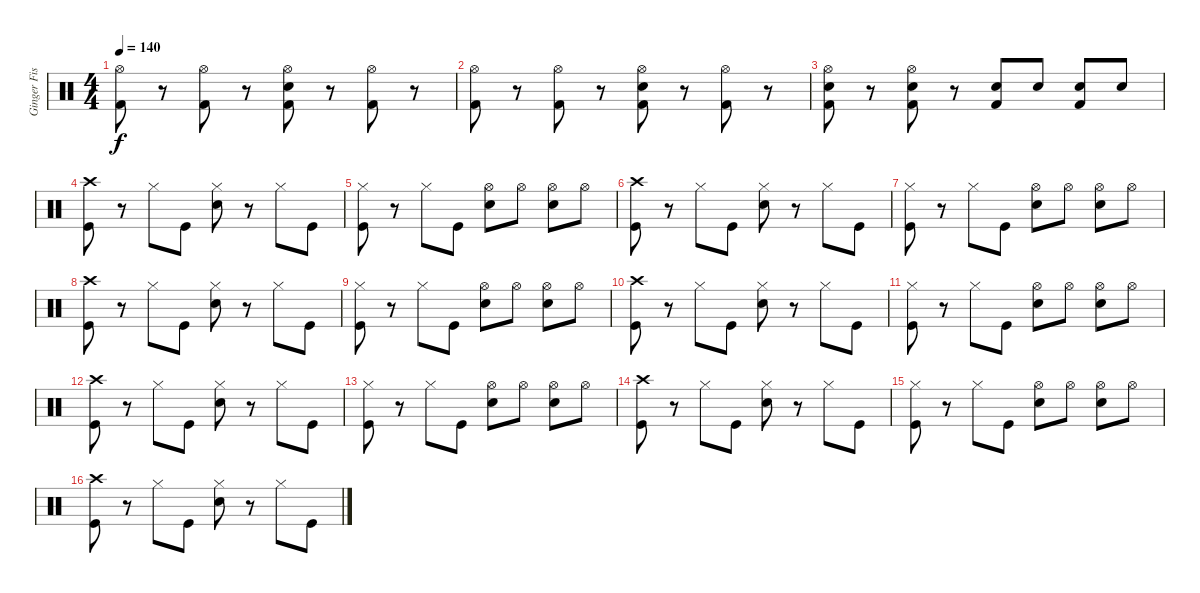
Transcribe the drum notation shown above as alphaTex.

\track ("Ginger Fish" "Ginger Fis") {instrument percussion}
\staff {score}
\articulation defaults
\ts (4 4)
\tempo 140
\clef neutral
\ks c
("Hi-Hat (open)" "Kick (hit) 2").8{dy f} r.8 ("Hi-Hat (open)" "Kick (hit) 2").8 r.8 ("Hi-Hat (open)" "Electric Snare (hit)" "Kick (hit) 2").8 r.8 ("Hi-Hat (open)" "Kick (hit) 2").8 r.8 |
("Hi-Hat (open)" "Kick (hit) 2").8 r.8 ("Hi-Hat (open)" "Kick (hit) 2").8 r.8 ("Hi-Hat (open)" "Electric Snare (hit)" "Kick (hit) 2").8 r.8 ("Hi-Hat (open)" "Kick (hit) 2").8 r.8 |
("Hi-Hat (open)" "Electric Snare (hit)" "Kick (hit) 2").8 r.8 ("Hi-Hat (open)" "Electric Snare (hit)" "Kick (hit) 2").8 r.8 ("Electric Snare (hit)" "Kick (hit) 2").8 "Electric Snare (hit)".8 ("Electric Snare (hit)" "Kick (hit) 2").8 "Electric Snare (hit)".8 |
("Crash high (hit)" "Kick (hit)").8 r.8 "Hi-Hat (closed)".8 "Kick (hit)".8 ("Hi-Hat (closed)" "Electric Snare (hit)").8 r.8 "Hi-Hat (closed)".8 "Kick (hit)".8 |
("Hi-Hat (closed)" "Kick (hit)").8 r.8 "Hi-Hat (closed)".8 "Kick (hit)".8 ("Hi-Hat (open)" "Electric Snare (hit)").8 "Hi-Hat (open)".8 ("Hi-Hat (open)" "Electric Snare (hit)").8 "Hi-Hat (open)".8 |
("Crash high (hit)" "Kick (hit)").8 r.8 "Hi-Hat (closed)".8 "Kick (hit)".8 ("Hi-Hat (closed)" "Electric Snare (hit)").8 r.8 "Hi-Hat (closed)".8 "Kick (hit)".8 |
("Hi-Hat (closed)" "Kick (hit)").8 r.8 "Hi-Hat (closed)".8 "Kick (hit)".8 ("Hi-Hat (open)" "Electric Snare (hit)").8 "Hi-Hat (open)".8 ("Hi-Hat (open)" "Electric Snare (hit)").8 "Hi-Hat (open)".8 |
("Crash high (hit)" "Kick (hit)").8 r.8 "Hi-Hat (closed)".8 "Kick (hit)".8 ("Hi-Hat (closed)" "Electric Snare (hit)").8 r.8 "Hi-Hat (closed)".8 "Kick (hit)".8 |
("Hi-Hat (closed)" "Kick (hit)").8 r.8 "Hi-Hat (closed)".8 "Kick (hit)".8 ("Hi-Hat (open)" "Electric Snare (hit)").8 "Hi-Hat (open)".8 ("Hi-Hat (open)" "Electric Snare (hit)").8 "Hi-Hat (open)".8 |
("Crash high (hit)" "Kick (hit)").8 r.8 "Hi-Hat (closed)".8 "Kick (hit)".8 ("Hi-Hat (closed)" "Electric Snare (hit)").8 r.8 "Hi-Hat (closed)".8 "Kick (hit)".8 |
("Hi-Hat (closed)" "Kick (hit)").8 r.8 "Hi-Hat (closed)".8 "Kick (hit)".8 ("Hi-Hat (open)" "Electric Snare (hit)").8 "Hi-Hat (open)".8 ("Hi-Hat (open)" "Electric Snare (hit)").8 "Hi-Hat (open)".8 |
("Crash high (hit)" "Kick (hit)").8 r.8 "Hi-Hat (closed)".8 "Kick (hit)".8 ("Hi-Hat (closed)" "Electric Snare (hit)").8 r.8 "Hi-Hat (closed)".8 "Kick (hit)".8 |
("Hi-Hat (closed)" "Kick (hit)").8 r.8 "Hi-Hat (closed)".8 "Kick (hit)".8 ("Hi-Hat (open)" "Electric Snare (hit)").8 "Hi-Hat (open)".8 ("Hi-Hat (open)" "Electric Snare (hit)").8 "Hi-Hat (open)".8 |
("Crash high (hit)" "Kick (hit)").8 r.8 "Hi-Hat (closed)".8 "Kick (hit)".8 ("Hi-Hat (closed)" "Electric Snare (hit)").8 r.8 "Hi-Hat (closed)".8 "Kick (hit)".8 |
("Hi-Hat (closed)" "Kick (hit)").8 r.8 "Hi-Hat (closed)".8 "Kick (hit)".8 ("Hi-Hat (open)" "Electric Snare (hit)").8 "Hi-Hat (open)".8 ("Hi-Hat (open)" "Electric Snare (hit)").8 "Hi-Hat (open)".8 |
("Crash high (hit)" "Kick (hit)").8 r.8 "Hi-Hat (closed)".8 "Kick (hit)".8 ("Hi-Hat (closed)" "Electric Snare (hit)").8 r.8 "Hi-Hat (closed)".8 "Kick (hit)".8
